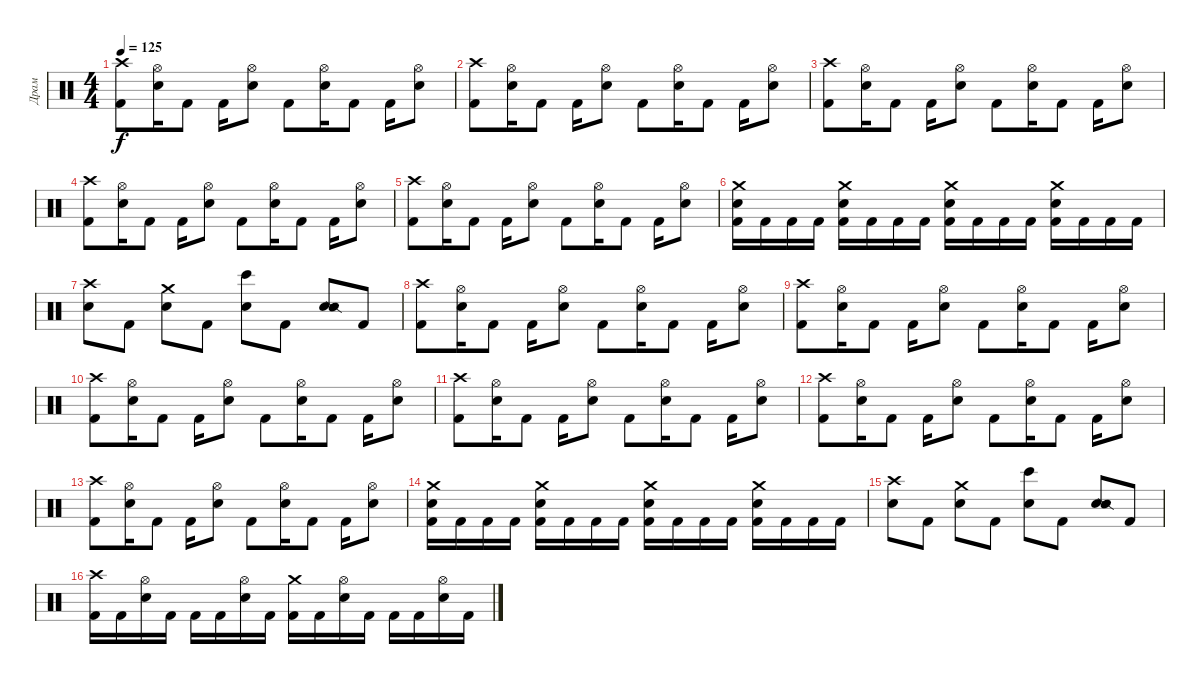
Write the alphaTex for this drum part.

\track ("Драм" "Драм") {instrument percussion}
\staff {score}
\articulation defaults
\ts (4 4)
\tempo 125
\clef neutral
\ks c
("Kick (hit) 2" "Crash high (hit)").8{dy f} ("Hi-Hat (open)" "Snare (hit) 2").16 "Kick (hit) 2".8 "Kick (hit) 2".16 ("Hi-Hat (open)" "Snare (hit) 2").8 "Kick (hit) 2".8 ("Hi-Hat (open)" "Snare (hit) 2").16 "Kick (hit) 2".8 "Kick (hit) 2".16 ("Hi-Hat (open)" "Snare (hit) 2").8 |
("Kick (hit) 2" "Crash high (hit)").8 ("Hi-Hat (open)" "Snare (hit) 2").16 "Kick (hit) 2".8 "Kick (hit) 2".16 ("Hi-Hat (open)" "Snare (hit) 2").8 "Kick (hit) 2".8 ("Hi-Hat (open)" "Snare (hit) 2").16 "Kick (hit) 2".8 "Kick (hit) 2".16 ("Hi-Hat (open)" "Snare (hit) 2").8 |
("Kick (hit) 2" "Crash high (hit)").8 ("Hi-Hat (open)" "Snare (hit) 2").16 "Kick (hit) 2".8 "Kick (hit) 2".16 ("Hi-Hat (open)" "Snare (hit) 2").8 "Kick (hit) 2".8 ("Hi-Hat (open)" "Snare (hit) 2").16 "Kick (hit) 2".8 "Kick (hit) 2".16 ("Hi-Hat (open)" "Snare (hit) 2").8 |
("Kick (hit) 2" "Crash high (hit)").8 ("Hi-Hat (open)" "Snare (hit) 2").16 "Kick (hit) 2".8 "Kick (hit) 2".16 ("Hi-Hat (open)" "Snare (hit) 2").8 "Kick (hit) 2".8 ("Hi-Hat (open)" "Snare (hit) 2").16 "Kick (hit) 2".8 "Kick (hit) 2".16 ("Hi-Hat (open)" "Snare (hit) 2").8 |
("Kick (hit) 2" "Crash high (hit)").8 ("Hi-Hat (open)" "Snare (hit) 2").16 "Kick (hit) 2".8 "Kick (hit) 2".16 ("Hi-Hat (open)" "Snare (hit) 2").8 "Kick (hit) 2".8 ("Hi-Hat (open)" "Snare (hit) 2").16 "Kick (hit) 2".8 "Kick (hit) 2".16 ("Hi-Hat (open)" "Snare (hit) 2").8 |
("Snare (hit) 2" "Kick (hit) 2" "Crash medium (hit)").16 "Kick (hit) 2".16 "Kick (hit) 2".16 "Kick (hit) 2".16 ("Snare (hit) 2" "Kick (hit) 2" "Crash medium (hit)").16 "Kick (hit) 2".16 "Kick (hit) 2".16 "Kick (hit) 2".16 ("Snare (hit) 2" "Kick (hit) 2" "Crash medium (hit)").16 "Kick (hit) 2".16 "Kick (hit) 2".16 "Kick (hit) 2".16 ("Snare (hit) 2" "Kick (hit) 2" "Crash medium (hit)").16 "Kick (hit) 2".16 "Kick (hit) 2".16 "Kick (hit) 2".16 |
("Snare (hit) 2" "Crash high (hit)").8 "Kick (hit) 2".8 ("Snare (hit) 2" "Crash medium (hit)").8 "Kick (hit) 2".8 ("Snare (hit) 2" "Bongo High (hit)").8 "Kick (hit) 2".8 ("Snare (hit) 2" "Snare (side stick) 2").8 "Kick (hit) 2".8 |
("Kick (hit) 2" "Crash high (hit)").8 ("Hi-Hat (open)" "Snare (hit) 2").16 "Kick (hit) 2".8 "Kick (hit) 2".16 ("Hi-Hat (open)" "Snare (hit) 2").8 "Kick (hit) 2".8 ("Hi-Hat (open)" "Snare (hit) 2").16 "Kick (hit) 2".8 "Kick (hit) 2".16 ("Hi-Hat (open)" "Snare (hit) 2").8 |
("Kick (hit) 2" "Crash high (hit)").8 ("Hi-Hat (open)" "Snare (hit) 2").16 "Kick (hit) 2".8 "Kick (hit) 2".16 ("Hi-Hat (open)" "Snare (hit) 2").8 "Kick (hit) 2".8 ("Hi-Hat (open)" "Snare (hit) 2").16 "Kick (hit) 2".8 "Kick (hit) 2".16 ("Hi-Hat (open)" "Snare (hit) 2").8 |
("Kick (hit) 2" "Crash high (hit)").8 ("Hi-Hat (open)" "Snare (hit) 2").16 "Kick (hit) 2".8 "Kick (hit) 2".16 ("Hi-Hat (open)" "Snare (hit) 2").8 "Kick (hit) 2".8 ("Hi-Hat (open)" "Snare (hit) 2").16 "Kick (hit) 2".8 "Kick (hit) 2".16 ("Hi-Hat (open)" "Snare (hit) 2").8 |
("Kick (hit) 2" "Crash high (hit)").8 ("Hi-Hat (open)" "Snare (hit) 2").16 "Kick (hit) 2".8 "Kick (hit) 2".16 ("Hi-Hat (open)" "Snare (hit) 2").8 "Kick (hit) 2".8 ("Hi-Hat (open)" "Snare (hit) 2").16 "Kick (hit) 2".8 "Kick (hit) 2".16 ("Hi-Hat (open)" "Snare (hit) 2").8 |
("Kick (hit) 2" "Crash high (hit)").8 ("Hi-Hat (open)" "Snare (hit) 2").16 "Kick (hit) 2".8 "Kick (hit) 2".16 ("Hi-Hat (open)" "Snare (hit) 2").8 "Kick (hit) 2".8 ("Hi-Hat (open)" "Snare (hit) 2").16 "Kick (hit) 2".8 "Kick (hit) 2".16 ("Hi-Hat (open)" "Snare (hit) 2").8 |
("Kick (hit) 2" "Crash high (hit)").8 ("Hi-Hat (open)" "Snare (hit) 2").16 "Kick (hit) 2".8 "Kick (hit) 2".16 ("Hi-Hat (open)" "Snare (hit) 2").8 "Kick (hit) 2".8 ("Hi-Hat (open)" "Snare (hit) 2").16 "Kick (hit) 2".8 "Kick (hit) 2".16 ("Hi-Hat (open)" "Snare (hit) 2").8 |
("Snare (hit) 2" "Kick (hit) 2" "Crash medium (hit)").16 "Kick (hit) 2".16 "Kick (hit) 2".16 "Kick (hit) 2".16 ("Snare (hit) 2" "Kick (hit) 2" "Crash medium (hit)").16 "Kick (hit) 2".16 "Kick (hit) 2".16 "Kick (hit) 2".16 ("Snare (hit) 2" "Kick (hit) 2" "Crash medium (hit)").16 "Kick (hit) 2".16 "Kick (hit) 2".16 "Kick (hit) 2".16 ("Snare (hit) 2" "Kick (hit) 2" "Crash medium (hit)").16 "Kick (hit) 2".16 "Kick (hit) 2".16 "Kick (hit) 2".16 |
("Snare (hit) 2" "Crash high (hit)").8 "Kick (hit) 2".8 ("Snare (hit) 2" "Crash medium (hit)").8 "Kick (hit) 2".8 ("Snare (hit) 2" "Bongo High (hit)").8 "Kick (hit) 2".8 ("Snare (hit) 2" "Snare (side stick) 2").8 "Kick (hit) 2".8 |
("Kick (hit) 2" "Crash high (hit)").16 "Kick (hit) 2".16 ("Hi-Hat (open)" "Snare (hit) 2").16 "Kick (hit) 2".16 "Kick (hit) 2".16 "Kick (hit) 2".16 ("Hi-Hat (open)" "Snare (hit) 2").16 "Kick (hit) 2".16 ("Kick (hit) 2" "Crash medium (hit)").16 "Kick (hit) 2".16 ("Hi-Hat (open)" "Snare (hit) 2").16 "Kick (hit) 2".16 "Kick (hit) 2".16 "Kick (hit) 2".16 ("Hi-Hat (open)" "Snare (hit) 2").16 "Kick (hit) 2".16
